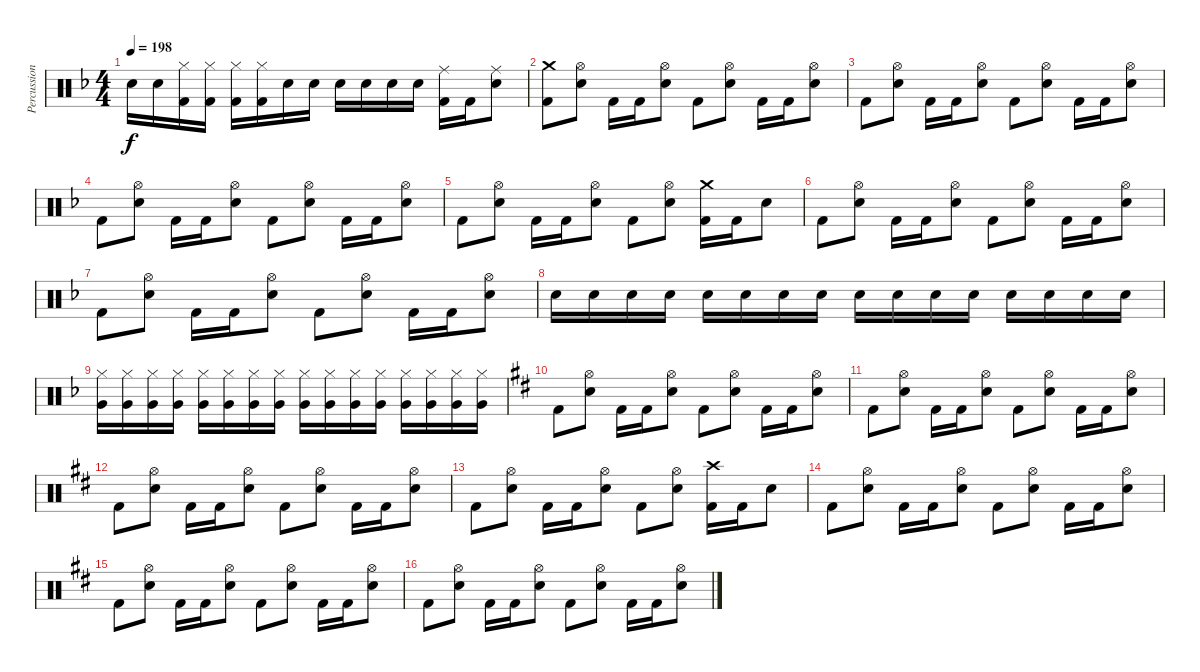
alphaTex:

\track ("Percussion" "Percussion") {instrument percussion}
\staff {score}
\articulation defaults
\ts (4 4)
\tempo 198
\clef neutral
\ks dminor "Snare (hit) 2".16{dy f} "Snare (hit) 2".16
("Hi-Hat (closed)" "Kick (hit) 2").16 ("Hi-Hat (closed)" "Kick (hit) 2").16 ("Hi-Hat (closed)" "Kick (hit) 2").16 ("Hi-Hat (closed)" "Kick (hit) 2").16 "Snare (hit) 2".16 "Snare (hit) 2".16 "Snare (hit) 2".16 "Snare (hit) 2".16 "Snare (hit) 2".16 "Snare (hit) 2".16 ("Ride (middle)" "Kick (hit) 2").16 "Kick (hit) 2".16 ("Ride (middle)" "Snare (hit) 2").8 |
("Crash medium (hit)" "Kick (hit) 2").8 ("Hi-Hat (open)" "Snare (hit) 2").8 "Kick (hit) 2".16 "Kick (hit) 2".16 ("Hi-Hat (open)" "Snare (hit) 2").8 "Kick (hit) 2".8 ("Hi-Hat (open)" "Snare (hit) 2").8 "Kick (hit) 2".16 "Kick (hit) 2".16 ("Hi-Hat (open)" "Snare (hit) 2").8 |
"Kick (hit) 2".8 ("Hi-Hat (open)" "Snare (hit) 2").8 "Kick (hit) 2".16 "Kick (hit) 2".16 ("Hi-Hat (open)" "Snare (hit) 2").8 "Kick (hit) 2".8 ("Hi-Hat (open)" "Snare (hit) 2").8 "Kick (hit) 2".16 "Kick (hit) 2".16 ("Hi-Hat (open)" "Snare (hit) 2").8 |
"Kick (hit) 2".8 ("Hi-Hat (open)" "Snare (hit) 2").8 "Kick (hit) 2".16 "Kick (hit) 2".16 ("Hi-Hat (open)" "Snare (hit) 2").8 "Kick (hit) 2".8 ("Hi-Hat (open)" "Snare (hit) 2").8 "Kick (hit) 2".16 "Kick (hit) 2".16 ("Hi-Hat (open)" "Snare (hit) 2").8 |
"Kick (hit) 2".8 ("Hi-Hat (open)" "Snare (hit) 2").8 "Kick (hit) 2".16 "Kick (hit) 2".16 ("Hi-Hat (open)" "Snare (hit) 2").8 "Kick (hit) 2".8 ("Hi-Hat (open)" "Snare (hit) 2").8 ("Crash medium (hit)" "Kick (hit) 2").16 "Kick (hit) 2".16 "Snare (hit) 2".8 |
"Kick (hit) 2".8 ("Hi-Hat (open)" "Snare (hit) 2").8 "Kick (hit) 2".16 "Kick (hit) 2".16 ("Hi-Hat (open)" "Snare (hit) 2").8 "Kick (hit) 2".8 ("Hi-Hat (open)" "Snare (hit) 2").8 "Kick (hit) 2".16 "Kick (hit) 2".16 ("Hi-Hat (open)" "Snare (hit) 2").8 |
"Kick (hit) 2".8 ("Hi-Hat (open)" "Snare (hit) 2").8 "Kick (hit) 2".16 "Kick (hit) 2".16 ("Hi-Hat (open)" "Snare (hit) 2").8 "Kick (hit) 2".8 ("Hi-Hat (open)" "Snare (hit) 2").8 "Kick (hit) 2".16 "Kick (hit) 2".16 ("Hi-Hat (open)" "Snare (hit) 2").8 |
"Snare (hit) 2".16 "Snare (hit) 2".16 "Snare (hit) 2".16 "Snare (hit) 2".16 "Snare (hit) 2".16 "Snare (hit) 2".16 "Snare (hit) 2".16 "Snare (hit) 2".16 "Snare (hit) 2".16 "Snare (hit) 2".16 "Snare (hit) 2".16 "Snare (hit) 2".16 "Snare (hit) 2".16 "Snare (hit) 2".16 "Snare (hit) 2".16 "Snare (hit) 2".16 |
("Hi-Hat (closed)" "Very Low Tom (hit)").16 ("Hi-Hat (closed)" "Very Low Tom (hit)").16 ("Hi-Hat (closed)" "Very Low Tom (hit)").16 ("Hi-Hat (closed)" "Very Low Tom (hit)").16 ("Hi-Hat (closed)" "Very Low Tom (hit)").16 ("Hi-Hat (closed)" "Very Low Tom (hit)").16 ("Hi-Hat (closed)" "Very Low Tom (hit)").16 ("Hi-Hat (closed)" "Very Low Tom (hit)").16 ("Hi-Hat (closed)" "Very Low Tom (hit)").16 ("Hi-Hat (closed)" "Very Low Tom (hit)").16 ("Hi-Hat (closed)" "Very Low Tom (hit)").16 ("Hi-Hat (closed)" "Very Low Tom (hit)").16 ("Hi-Hat (closed)" "Very Low Tom (hit)").16 ("Hi-Hat (closed)" "Very Low Tom (hit)").16 ("Hi-Hat (closed)" "Very Low Tom (hit)").16 ("Hi-Hat (closed)" "Very Low Tom (hit)").16 |
\ks bminor "Kick (hit) 2".8
("Hi-Hat (open)" "Snare (hit) 2").8 "Kick (hit) 2".16 "Kick (hit) 2".16 ("Hi-Hat (open)" "Snare (hit) 2").8 "Kick (hit) 2".8 ("Hi-Hat (open)" "Snare (hit) 2").8 "Kick (hit) 2".16 "Kick (hit) 2".16 ("Hi-Hat (open)" "Snare (hit) 2").8 |
"Kick (hit) 2".8 ("Hi-Hat (open)" "Snare (hit) 2").8 "Kick (hit) 2".16 "Kick (hit) 2".16 ("Hi-Hat (open)" "Snare (hit) 2").8 "Kick (hit) 2".8 ("Hi-Hat (open)" "Snare (hit) 2").8 "Kick (hit) 2".16 "Kick (hit) 2".16 ("Hi-Hat (open)" "Snare (hit) 2").8 |
"Kick (hit) 2".8 ("Hi-Hat (open)" "Snare (hit) 2").8 "Kick (hit) 2".16 "Kick (hit) 2".16 ("Hi-Hat (open)" "Snare (hit) 2").8 "Kick (hit) 2".8 ("Hi-Hat (open)" "Snare (hit) 2").8 "Kick (hit) 2".16 "Kick (hit) 2".16 ("Hi-Hat (open)" "Snare (hit) 2").8 |
"Kick (hit) 2".8 ("Hi-Hat (open)" "Snare (hit) 2").8 "Kick (hit) 2".16 "Kick (hit) 2".16 ("Hi-Hat (open)" "Snare (hit) 2").8 "Kick (hit) 2".8 ("Hi-Hat (open)" "Snare (hit) 2").8 ("Crash high (hit)" "Kick (hit) 2").16 "Kick (hit) 2".16 "Snare (hit) 2".8 |
"Kick (hit) 2".8 ("Hi-Hat (open)" "Snare (hit) 2").8 "Kick (hit) 2".16 "Kick (hit) 2".16 ("Hi-Hat (open)" "Snare (hit) 2").8 "Kick (hit) 2".8 ("Hi-Hat (open)" "Snare (hit) 2").8 "Kick (hit) 2".16 "Kick (hit) 2".16 ("Hi-Hat (open)" "Snare (hit) 2").8 |
"Kick (hit) 2".8 ("Hi-Hat (open)" "Snare (hit) 2").8 "Kick (hit) 2".16 "Kick (hit) 2".16 ("Hi-Hat (open)" "Snare (hit) 2").8 "Kick (hit) 2".8 ("Hi-Hat (open)" "Snare (hit) 2").8 "Kick (hit) 2".16 "Kick (hit) 2".16 ("Hi-Hat (open)" "Snare (hit) 2").8 |
"Kick (hit) 2".8 ("Hi-Hat (open)" "Snare (hit) 2").8 "Kick (hit) 2".16 "Kick (hit) 2".16 ("Hi-Hat (open)" "Snare (hit) 2").8 "Kick (hit) 2".8 ("Hi-Hat (open)" "Snare (hit) 2").8 "Kick (hit) 2".16 "Kick (hit) 2".16 ("Hi-Hat (open)" "Snare (hit) 2").8
